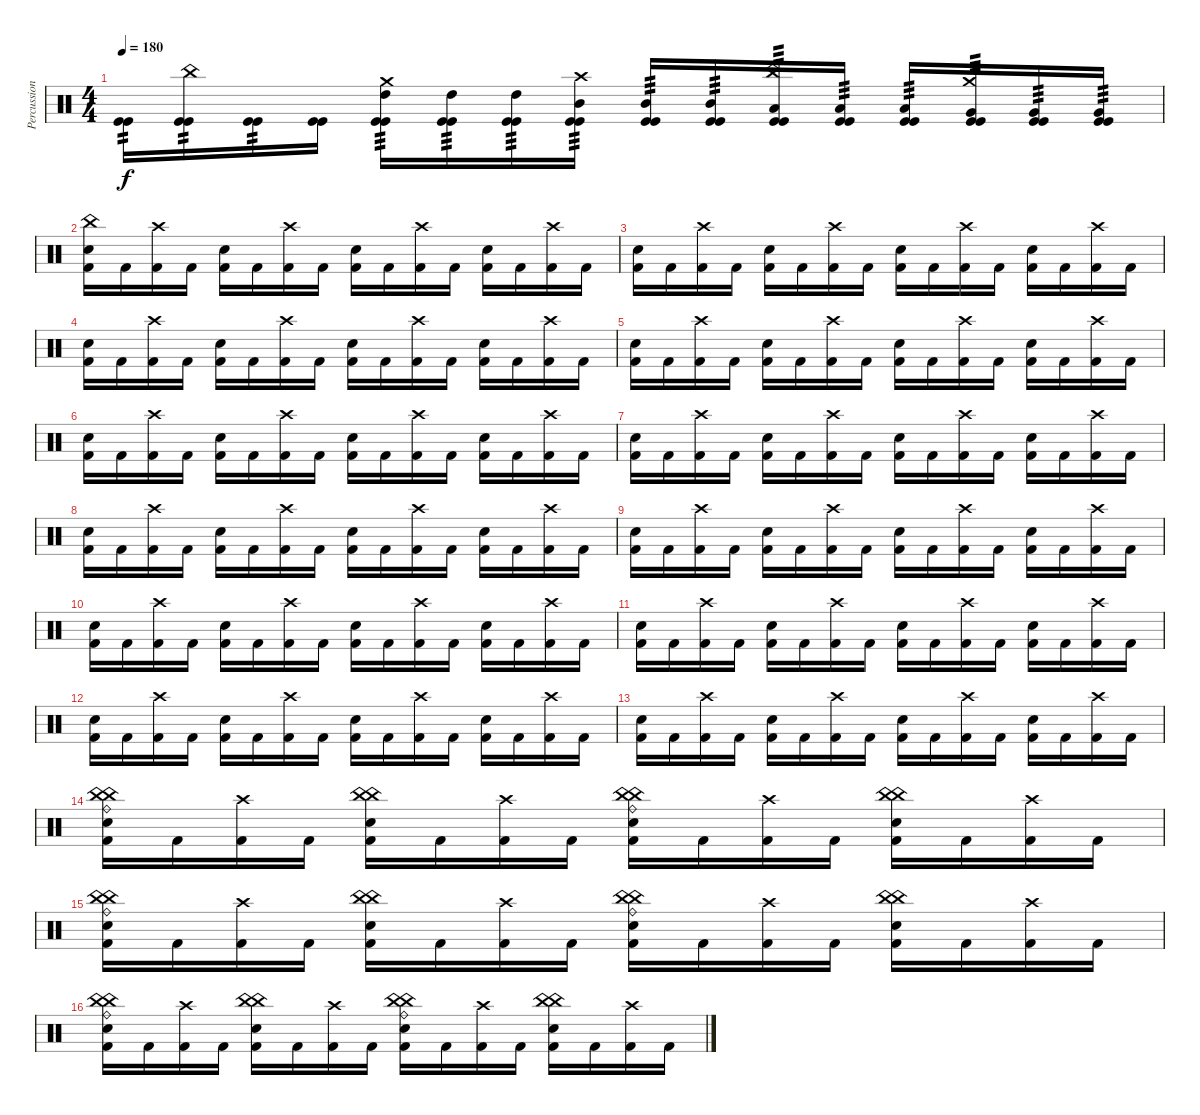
\track ("Percussions" "Percussion") {instrument percussion}
\staff {score}
\articulation defaults
\ts (4 4)
\tempo 180
\clef neutral
\ks c
("Kick (hit)" "Kick (hit)").16{tp 2 dy f} ("China (hit)" "Kick (hit)" "Kick (hit)").16{tp 2} ("Kick (hit)" "Kick (hit)").16{tp 2} ("Kick (hit)" "Kick (hit)").16 ("High Tom (hit)" "Crash medium (hit)" "Kick (hit)" "Kick (hit)").16{tp 3} ("High Tom (hit)" "Kick (hit)" "Kick (hit)").16{tp 3} ("High Tom (hit)" "Kick (hit)" "Kick (hit)").16{tp 3} ("Mid Tom (hit)" "Crash high (hit)" "Kick (hit)" "Kick (hit)").16{tp 3} ("Mid Tom (hit)" "Kick (hit)" "Kick (hit)").16{tp 3} ("Mid Tom (hit)" "Kick (hit)" "Kick (hit)").16{tp 3} ("Low Tom (hit)" "China (hit)" "Kick (hit)" "Kick (hit)").16{tp 3} ("Low Tom (hit)" "Kick (hit)" "Kick (hit)").16{tp 3} ("Low Tom (hit)" "Kick (hit)" "Kick (hit)").16{tp 3} ("Very Low Tom (hit)" "Crash medium (hit)" "Kick (hit)" "Kick (hit)").16{tp 3} ("Very Low Tom (hit)" "Kick (hit)" "Kick (hit)").16{tp 3} ("Very Low Tom (hit)" "Kick (hit)" "Kick (hit)").16{tp 3} |
("China (hit)" "Snare (hit) 2" "Kick (hit) 2").16 "Kick (hit) 2".16 ("Crash high (hit)" "Kick (hit) 2").16 "Kick (hit) 2".16 ("Snare (hit) 2" "Kick (hit) 2").16 "Kick (hit) 2".16 ("Crash high (hit)" "Kick (hit) 2").16 "Kick (hit) 2".16 ("Snare (hit) 2" "Kick (hit) 2").16 "Kick (hit) 2".16 ("Crash high (hit)" "Kick (hit) 2").16 "Kick (hit) 2".16 ("Snare (hit) 2" "Kick (hit) 2").16 "Kick (hit) 2".16 ("Crash high (hit)" "Kick (hit) 2").16 "Kick (hit) 2".16 |
("Snare (hit) 2" "Kick (hit) 2").16 "Kick (hit) 2".16 ("Crash high (hit)" "Kick (hit) 2").16 "Kick (hit) 2".16 ("Snare (hit) 2" "Kick (hit) 2").16 "Kick (hit) 2".16 ("Crash high (hit)" "Kick (hit) 2").16 "Kick (hit) 2".16 ("Snare (hit) 2" "Kick (hit) 2").16 "Kick (hit) 2".16 ("Crash high (hit)" "Kick (hit) 2").16 "Kick (hit) 2".16 ("Snare (hit) 2" "Kick (hit) 2").16 "Kick (hit) 2".16 ("Crash high (hit)" "Kick (hit) 2").16 "Kick (hit) 2".16 |
("Snare (hit) 2" "Kick (hit) 2").16 "Kick (hit) 2".16 ("Crash high (hit)" "Kick (hit) 2").16 "Kick (hit) 2".16 ("Snare (hit) 2" "Kick (hit) 2").16 "Kick (hit) 2".16 ("Crash high (hit)" "Kick (hit) 2").16 "Kick (hit) 2".16 ("Snare (hit) 2" "Kick (hit) 2").16 "Kick (hit) 2".16 ("Crash high (hit)" "Kick (hit) 2").16 "Kick (hit) 2".16 ("Snare (hit) 2" "Kick (hit) 2").16 "Kick (hit) 2".16 ("Crash high (hit)" "Kick (hit) 2").16 "Kick (hit) 2".16 |
("Snare (hit) 2" "Kick (hit) 2").16 "Kick (hit) 2".16 ("Crash high (hit)" "Kick (hit) 2").16 "Kick (hit) 2".16 ("Snare (hit) 2" "Kick (hit) 2").16 "Kick (hit) 2".16 ("Crash high (hit)" "Kick (hit) 2").16 "Kick (hit) 2".16 ("Snare (hit) 2" "Kick (hit) 2").16 "Kick (hit) 2".16 ("Crash high (hit)" "Kick (hit) 2").16 "Kick (hit) 2".16 ("Snare (hit) 2" "Kick (hit) 2").16 "Kick (hit) 2".16 ("Crash high (hit)" "Kick (hit) 2").16 "Kick (hit) 2".16 |
("Snare (hit) 2" "Kick (hit) 2").16 "Kick (hit) 2".16 ("Crash high (hit)" "Kick (hit) 2").16 "Kick (hit) 2".16 ("Snare (hit) 2" "Kick (hit) 2").16 "Kick (hit) 2".16 ("Crash high (hit)" "Kick (hit) 2").16 "Kick (hit) 2".16 ("Snare (hit) 2" "Kick (hit) 2").16 "Kick (hit) 2".16 ("Crash high (hit)" "Kick (hit) 2").16 "Kick (hit) 2".16 ("Snare (hit) 2" "Kick (hit) 2").16 "Kick (hit) 2".16 ("Crash high (hit)" "Kick (hit) 2").16 "Kick (hit) 2".16 |
("Snare (hit) 2" "Kick (hit) 2").16 "Kick (hit) 2".16 ("Crash high (hit)" "Kick (hit) 2").16 "Kick (hit) 2".16 ("Snare (hit) 2" "Kick (hit) 2").16 "Kick (hit) 2".16 ("Crash high (hit)" "Kick (hit) 2").16 "Kick (hit) 2".16 ("Snare (hit) 2" "Kick (hit) 2").16 "Kick (hit) 2".16 ("Crash high (hit)" "Kick (hit) 2").16 "Kick (hit) 2".16 ("Snare (hit) 2" "Kick (hit) 2").16 "Kick (hit) 2".16 ("Crash high (hit)" "Kick (hit) 2").16 "Kick (hit) 2".16 |
("Snare (hit) 2" "Kick (hit) 2").16 "Kick (hit) 2".16 ("Crash high (hit)" "Kick (hit) 2").16 "Kick (hit) 2".16 ("Snare (hit) 2" "Kick (hit) 2").16 "Kick (hit) 2".16 ("Crash high (hit)" "Kick (hit) 2").16 "Kick (hit) 2".16 ("Snare (hit) 2" "Kick (hit) 2").16 "Kick (hit) 2".16 ("Crash high (hit)" "Kick (hit) 2").16 "Kick (hit) 2".16 ("Snare (hit) 2" "Kick (hit) 2").16 "Kick (hit) 2".16 ("Crash high (hit)" "Kick (hit) 2").16 "Kick (hit) 2".16 |
("Snare (hit) 2" "Kick (hit) 2").16 "Kick (hit) 2".16 ("Crash high (hit)" "Kick (hit) 2").16 "Kick (hit) 2".16 ("Snare (hit) 2" "Kick (hit) 2").16 "Kick (hit) 2".16 ("Crash high (hit)" "Kick (hit) 2").16 "Kick (hit) 2".16 ("Snare (hit) 2" "Kick (hit) 2").16 "Kick (hit) 2".16 ("Crash high (hit)" "Kick (hit) 2").16 "Kick (hit) 2".16 ("Snare (hit) 2" "Kick (hit) 2").16 "Kick (hit) 2".16 ("Crash high (hit)" "Kick (hit) 2").16 "Kick (hit) 2".16 |
("Snare (hit) 2" "Kick (hit) 2").16 "Kick (hit) 2".16 ("Crash high (hit)" "Kick (hit) 2").16 "Kick (hit) 2".16 ("Snare (hit) 2" "Kick (hit) 2").16 "Kick (hit) 2".16 ("Crash high (hit)" "Kick (hit) 2").16 "Kick (hit) 2".16 ("Snare (hit) 2" "Kick (hit) 2").16 "Kick (hit) 2".16 ("Crash high (hit)" "Kick (hit) 2").16 "Kick (hit) 2".16 ("Snare (hit) 2" "Kick (hit) 2").16 "Kick (hit) 2".16 ("Crash high (hit)" "Kick (hit) 2").16 "Kick (hit) 2".16 |
("Snare (hit) 2" "Kick (hit) 2").16 "Kick (hit) 2".16 ("Crash high (hit)" "Kick (hit) 2").16 "Kick (hit) 2".16 ("Snare (hit) 2" "Kick (hit) 2").16 "Kick (hit) 2".16 ("Crash high (hit)" "Kick (hit) 2").16 "Kick (hit) 2".16 ("Snare (hit) 2" "Kick (hit) 2").16 "Kick (hit) 2".16 ("Crash high (hit)" "Kick (hit) 2").16 "Kick (hit) 2".16 ("Snare (hit) 2" "Kick (hit) 2").16 "Kick (hit) 2".16 ("Crash high (hit)" "Kick (hit) 2").16 "Kick (hit) 2".16 |
("Snare (hit) 2" "Kick (hit) 2").16 "Kick (hit) 2".16 ("Crash high (hit)" "Kick (hit) 2").16 "Kick (hit) 2".16 ("Snare (hit) 2" "Kick (hit) 2").16 "Kick (hit) 2".16 ("Crash high (hit)" "Kick (hit) 2").16 "Kick (hit) 2".16 ("Snare (hit) 2" "Kick (hit) 2").16 "Kick (hit) 2".16 ("Crash high (hit)" "Kick (hit) 2").16 "Kick (hit) 2".16 ("Snare (hit) 2" "Kick (hit) 2").16 "Kick (hit) 2".16 ("Crash high (hit)" "Kick (hit) 2").16 "Kick (hit) 2".16 |
("Snare (hit) 2" "Kick (hit) 2").16 "Kick (hit) 2".16 ("Crash high (hit)" "Kick (hit) 2").16 "Kick (hit) 2".16 ("Snare (hit) 2" "Kick (hit) 2").16 "Kick (hit) 2".16 ("Crash high (hit)" "Kick (hit) 2").16 "Kick (hit) 2".16 ("Snare (hit) 2" "Kick (hit) 2").16 "Kick (hit) 2".16 ("Crash high (hit)" "Kick (hit) 2").16 "Kick (hit) 2".16 ("Snare (hit) 2" "Kick (hit) 2").16 "Kick (hit) 2".16 ("Crash high (hit)" "Kick (hit) 2").16 "Kick (hit) 2".16 |
("China (hit)" "China (hit)" "Ride (bell)" "Snare (hit) 2" "Kick (hit) 2").16 "Kick (hit) 2".16 ("Crash high (hit)" "Kick (hit) 2").16 "Kick (hit) 2".16 ("China (hit)" "China (hit)" "Snare (hit) 2" "Kick (hit) 2").16 "Kick (hit) 2".16 ("Crash high (hit)" "Kick (hit) 2").16 "Kick (hit) 2".16 ("China (hit)" "China (hit)" "Ride (bell)" "Snare (hit) 2" "Kick (hit) 2").16 "Kick (hit) 2".16 ("Crash high (hit)" "Kick (hit) 2").16 "Kick (hit) 2".16 ("China (hit)" "China (hit)" "Snare (hit) 2" "Kick (hit) 2").16 "Kick (hit) 2".16 ("Crash high (hit)" "Kick (hit) 2").16 "Kick (hit) 2".16 |
("China (hit)" "China (hit)" "Ride (bell)" "Snare (hit) 2" "Kick (hit) 2").16 "Kick (hit) 2".16 ("Crash high (hit)" "Kick (hit) 2").16 "Kick (hit) 2".16 ("China (hit)" "China (hit)" "Snare (hit) 2" "Kick (hit) 2").16 "Kick (hit) 2".16 ("Crash high (hit)" "Kick (hit) 2").16 "Kick (hit) 2".16 ("China (hit)" "China (hit)" "Ride (bell)" "Snare (hit) 2" "Kick (hit) 2").16 "Kick (hit) 2".16 ("Crash high (hit)" "Kick (hit) 2").16 "Kick (hit) 2".16 ("China (hit)" "China (hit)" "Snare (hit) 2" "Kick (hit) 2").16 "Kick (hit) 2".16 ("Crash high (hit)" "Kick (hit) 2").16 "Kick (hit) 2".16 |
("China (hit)" "China (hit)" "Ride (bell)" "Snare (hit) 2" "Kick (hit) 2").16 "Kick (hit) 2".16 ("Crash high (hit)" "Kick (hit) 2").16 "Kick (hit) 2".16 ("China (hit)" "China (hit)" "Snare (hit) 2" "Kick (hit) 2").16 "Kick (hit) 2".16 ("Crash high (hit)" "Kick (hit) 2").16 "Kick (hit) 2".16 ("China (hit)" "China (hit)" "Ride (bell)" "Snare (hit) 2" "Kick (hit) 2").16 "Kick (hit) 2".16 ("Crash high (hit)" "Kick (hit) 2").16 "Kick (hit) 2".16 ("China (hit)" "China (hit)" "Snare (hit) 2" "Kick (hit) 2").16 "Kick (hit) 2".16 ("Crash high (hit)" "Kick (hit) 2").16 "Kick (hit) 2".16
